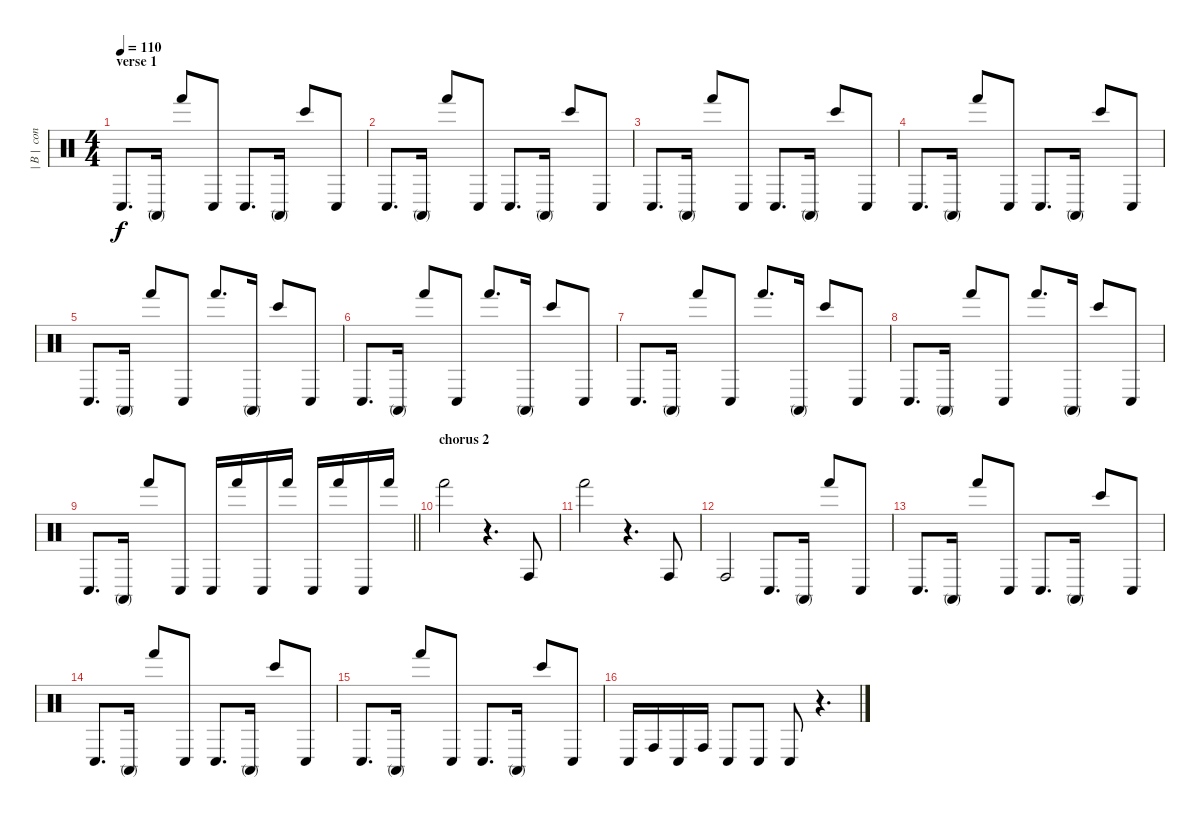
\track ("| B |  conga" "| B |  con") {instrument percussion}
\staff {score}
\articulation defaults
\ts (4 4)
\section ("" "verse 1")
\tempo 110
\clef neutral
\ks c "Conga low (hit)".8{d dy f} "Conga high (mute)".16 "Hand (hit)".8 "Conga low (hit)".8 "Conga low (hit)".8{d} "Conga high (mute)".16 "Bongo High (hit)".8 "Conga low (hit)".8
|
"Conga low (hit)".8{d} "Conga high (mute)".16 "Hand (hit)".8 "Conga low (hit)".8 "Conga low (hit)".8{d} "Conga high (mute)".16 "Bongo High (hit)".8 "Conga low (hit)".8 |
"Conga low (hit)".8{d} "Conga high (mute)".16 "Hand (hit)".8 "Conga low (hit)".8 "Conga low (hit)".8{d} "Conga high (mute)".16 "Bongo High (hit)".8 "Conga low (hit)".8 |
"Conga low (hit)".8{d} "Conga high (mute)".16 "Hand (hit)".8 "Conga low (hit)".8 "Conga low (hit)".8{d} "Conga high (mute)".16 "Bongo High (hit)".8 "Conga low (hit)".8 |
"Conga low (hit)".8{d} "Conga high (mute)".16 "Hand (hit)".8 "Conga low (hit)".8 "Hand (hit)".8{d} "Conga high (mute)".16 "Bongo High (hit)".8 "Conga low (hit)".8 |
"Conga low (hit)".8{d} "Conga high (mute)".16 "Hand (hit)".8 "Conga low (hit)".8 "Hand (hit)".8{d} "Conga high (mute)".16 "Bongo High (hit)".8 "Conga low (hit)".8 |
"Conga low (hit)".8{d} "Conga high (mute)".16 "Hand (hit)".8 "Conga low (hit)".8 "Hand (hit)".8{d} "Conga high (mute)".16 "Bongo High (hit)".8 "Conga low (hit)".8 |
"Conga low (hit)".8{d} "Conga high (mute)".16 "Hand (hit)".8 "Conga low (hit)".8 "Hand (hit)".8{d} "Conga high (mute)".16 "Bongo High (hit)".8 "Conga low (hit)".8 |
\barLineRight lightlight "Conga low (hit)".8{d} "Conga high (mute)".16 "Hand (hit)".8 "Conga low (hit)".8 "Conga low (hit)".16 "Hand (hit)".16 "Conga low (hit)".16 "Hand (hit)".16 "Conga low (hit)".16 "Hand (hit)".16 "Conga low (hit)".16 "Hand (hit)".16
|
\section ("" "chorus 2")
"Hand (hit)".2 r.4{d} "Conga high (hit)".8 |
"Hand (hit)".2 r.4{d} "Conga high (hit)".8 |
"Conga high (hit)".2 "Conga low (hit)".8{d} "Conga high (mute)".16 "Hand (hit)".8 "Conga low (hit)".8 |
"Conga low (hit)".8{d} "Conga high (mute)".16 "Hand (hit)".8 "Conga low (hit)".8 "Conga low (hit)".8{d} "Conga high (mute)".16 "Bongo High (hit)".8 "Conga low (hit)".8 |
"Conga low (hit)".8{d} "Conga high (mute)".16 "Hand (hit)".8 "Conga low (hit)".8 "Conga low (hit)".8{d} "Conga high (mute)".16 "Bongo High (hit)".8 "Conga low (hit)".8 |
"Conga low (hit)".8{d} "Conga high (mute)".16 "Hand (hit)".8 "Conga low (hit)".8 "Conga low (hit)".8{d} "Conga high (mute)".16 "Bongo High (hit)".8 "Conga low (hit)".8 |
"Conga low (hit)".16 "Conga high (hit)".16 "Conga low (hit)".16 "Conga high (hit)".16 "Conga low (hit)".8 "Conga low (hit)".8 "Conga low (hit)".8 r.4{d}
